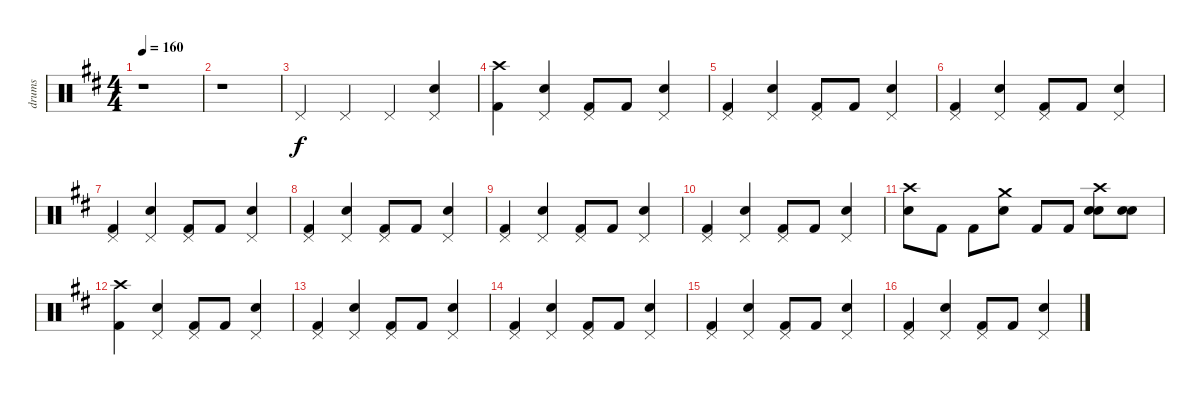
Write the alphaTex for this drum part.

\track ("drums" "drums") {instrument percussion}
\staff {score}
\articulation defaults
\ts (4 4)
\tempo 160
\clef neutral
\ks bminor
r.1{dy f} |
r.1 |
"Pedal Hi-Hat (hit)".4 "Pedal Hi-Hat (hit)".4 "Pedal Hi-Hat (hit)".4 ("Pedal Hi-Hat (hit)" "Snare (hit) 2").4 |
("Crash high (hit)" "Kick (hit) 2").4 ("Pedal Hi-Hat (hit)" "Snare (hit) 2").4 ("Pedal Hi-Hat (hit)" "Kick (hit) 2").8 "Kick (hit) 2".8 ("Pedal Hi-Hat (hit)" "Snare (hit) 2").4 |
("Pedal Hi-Hat (hit)" "Kick (hit) 2").4 ("Pedal Hi-Hat (hit)" "Snare (hit) 2").4 ("Pedal Hi-Hat (hit)" "Kick (hit) 2").8 "Kick (hit) 2".8 ("Pedal Hi-Hat (hit)" "Snare (hit) 2").4 |
("Pedal Hi-Hat (hit)" "Kick (hit) 2").4 ("Pedal Hi-Hat (hit)" "Snare (hit) 2").4 ("Pedal Hi-Hat (hit)" "Kick (hit) 2").8 "Kick (hit) 2".8 ("Pedal Hi-Hat (hit)" "Snare (hit) 2").4 |
("Pedal Hi-Hat (hit)" "Kick (hit) 2").4 ("Pedal Hi-Hat (hit)" "Snare (hit) 2").4 ("Pedal Hi-Hat (hit)" "Kick (hit) 2").8 "Kick (hit) 2".8 ("Pedal Hi-Hat (hit)" "Snare (hit) 2").4 |
("Pedal Hi-Hat (hit)" "Kick (hit) 2").4 ("Pedal Hi-Hat (hit)" "Snare (hit) 2").4 ("Pedal Hi-Hat (hit)" "Kick (hit) 2").8 "Kick (hit) 2".8 ("Pedal Hi-Hat (hit)" "Snare (hit) 2").4 |
("Pedal Hi-Hat (hit)" "Kick (hit) 2").4 ("Pedal Hi-Hat (hit)" "Snare (hit) 2").4 ("Pedal Hi-Hat (hit)" "Kick (hit) 2").8 "Kick (hit) 2".8 ("Pedal Hi-Hat (hit)" "Snare (hit) 2").4 |
("Pedal Hi-Hat (hit)" "Kick (hit) 2").4 ("Pedal Hi-Hat (hit)" "Snare (hit) 2").4 ("Pedal Hi-Hat (hit)" "Kick (hit) 2").8 "Kick (hit) 2".8 ("Pedal Hi-Hat (hit)" "Snare (hit) 2").4 |
("Crash high (hit)" "Snare (hit) 2").8 "Kick (hit) 2".8 "Kick (hit) 2".8 ("Crash medium (hit)" "Snare (hit) 2").8 "Kick (hit) 2".8 "Kick (hit) 2".8 ("Crash high (hit)" "Snare (hit) 2" "Snare (hit) 2").8 ("Snare (hit) 2" "Snare (hit) 2").8 |
("Crash high (hit)" "Kick (hit) 2").4 ("Pedal Hi-Hat (hit)" "Snare (hit) 2").4 ("Pedal Hi-Hat (hit)" "Kick (hit) 2").8 "Kick (hit) 2".8 ("Pedal Hi-Hat (hit)" "Snare (hit) 2").4 |
("Pedal Hi-Hat (hit)" "Kick (hit) 2").4 ("Pedal Hi-Hat (hit)" "Snare (hit) 2").4 ("Pedal Hi-Hat (hit)" "Kick (hit) 2").8 "Kick (hit) 2".8 ("Pedal Hi-Hat (hit)" "Snare (hit) 2").4 |
("Pedal Hi-Hat (hit)" "Kick (hit) 2").4 ("Pedal Hi-Hat (hit)" "Snare (hit) 2").4 ("Pedal Hi-Hat (hit)" "Kick (hit) 2").8 "Kick (hit) 2".8 ("Pedal Hi-Hat (hit)" "Snare (hit) 2").4 |
("Pedal Hi-Hat (hit)" "Kick (hit) 2").4 ("Pedal Hi-Hat (hit)" "Snare (hit) 2").4 ("Pedal Hi-Hat (hit)" "Kick (hit) 2").8 "Kick (hit) 2".8 ("Pedal Hi-Hat (hit)" "Snare (hit) 2").4 |
("Pedal Hi-Hat (hit)" "Kick (hit) 2").4 ("Pedal Hi-Hat (hit)" "Snare (hit) 2").4 ("Pedal Hi-Hat (hit)" "Kick (hit) 2").8 "Kick (hit) 2".8 ("Pedal Hi-Hat (hit)" "Snare (hit) 2").4
